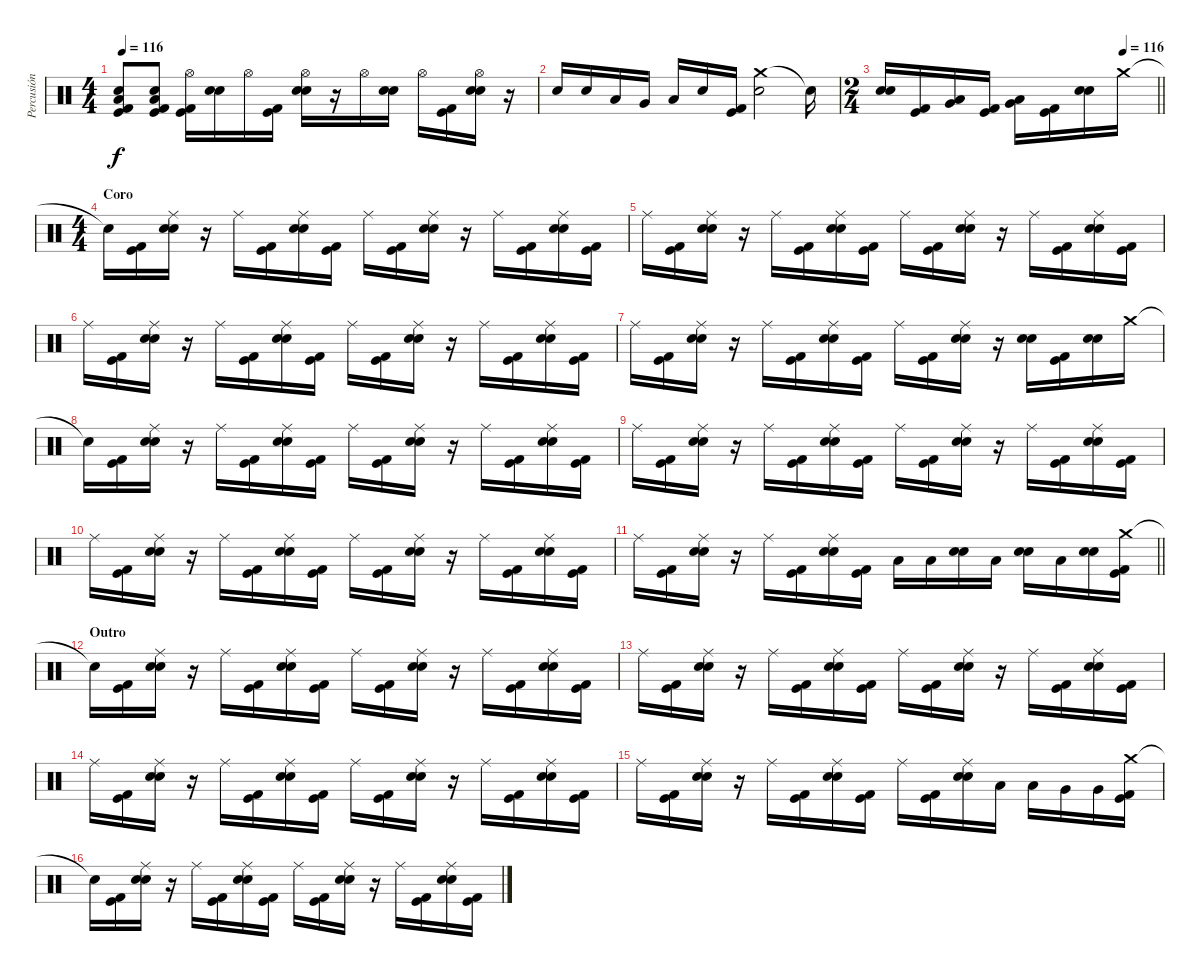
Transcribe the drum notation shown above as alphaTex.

\track ("Percusión" "Percusión") {instrument percussion}
\staff {score}
\articulation defaults
\ts (4 4)
\tempo 116
\clef neutral
\ks c
("Low Floor Tom (hit)" "Electric Snare (hit)" "Kick (hit)" "Kick (hit) 2").8{dy f} ("Low Floor Tom (hit)" "Electric Snare (hit)" "Kick (hit)" "Kick (hit) 2").8 ("Hi-Hat (open)" "Kick (hit)" "Kick (hit) 2").16 ("Electric Snare (hit)" "Snare (hit) 2").16 "Hi-Hat (open)".16 ("Kick (hit)" "Kick (hit) 2").16 ("Hi-Hat (open)" "Electric Snare (hit)" "Snare (hit) 2").16 r.16 "Hi-Hat (open)".16 ("Electric Snare (hit)" "Snare (hit) 2").16 "Hi-Hat (open)".16 ("Kick (hit)" "Kick (hit) 2").16 ("Hi-Hat (open)" "Electric Snare (hit)" "Snare (hit) 2").16 r.16 |
"Electric Snare (hit)".16 "Electric Snare (hit)".16 "Low Tom (hit)".16 "Very Low Tom (hit)".16 "Low Floor Tom (hit)".16 "Electric Snare (hit)".16 ("Kick (hit)" "Kick (hit) 2").16 ("Crash medium (hit)" "Electric Snare (hit)").2 "Snare (hit)"{t}.16 |
\ts (2 4)
\tempo (116 0.875)
\barLineRight lightlight
("Electric Snare (hit)" "Snare (hit) 2").16 ("Kick (hit)" "Kick (hit) 2").16 ("Low Tom (hit)" "Very Low Tom (hit)").16 ("Kick (hit)" "Kick (hit) 2").16 ("Low Tom (hit)" "Very Low Tom (hit)").16 ("Kick (hit)" "Kick (hit) 2").16 ("Electric Snare (hit)" "Snare (hit) 2").16 "Crash medium (hit)".16 |
\ts (4 4)
\section ("" "Coro")
"Snare (hit)"{t}.16 ("Kick (hit)" "Kick (hit) 2").16 ("Ride (middle)" "Electric Snare (hit)" "Snare (hit) 2").16 r.16 "Ride (middle)".16 ("Kick (hit)" "Kick (hit) 2").16 ("Ride (middle)" "Electric Snare (hit)" "Snare (hit) 2").16 ("Kick (hit)" "Kick (hit) 2").16 "Ride (middle)".16 ("Kick (hit)" "Kick (hit) 2").16 ("Ride (middle)" "Electric Snare (hit)" "Snare (hit) 2").16 r.16 "Ride (middle)".16 ("Kick (hit)" "Kick (hit) 2").16 ("Ride (middle)" "Electric Snare (hit)" "Snare (hit) 2").16 ("Kick (hit)" "Kick (hit) 2").16 |
"Ride (middle)".16 ("Kick (hit)" "Kick (hit) 2").16 ("Ride (middle)" "Electric Snare (hit)" "Snare (hit) 2").16 r.16 "Ride (middle)".16 ("Kick (hit)" "Kick (hit) 2").16 ("Ride (middle)" "Electric Snare (hit)" "Snare (hit) 2").16 ("Kick (hit)" "Kick (hit) 2").16 "Ride (middle)".16 ("Kick (hit)" "Kick (hit) 2").16 ("Ride (middle)" "Electric Snare (hit)" "Snare (hit) 2").16 r.16 "Ride (middle)".16 ("Kick (hit)" "Kick (hit) 2").16 ("Ride (middle)" "Electric Snare (hit)" "Snare (hit) 2").16 ("Kick (hit)" "Kick (hit) 2").16 |
"Ride (middle)".16 ("Kick (hit)" "Kick (hit) 2").16 ("Ride (middle)" "Electric Snare (hit)" "Snare (hit) 2").16 r.16 "Ride (middle)".16 ("Kick (hit)" "Kick (hit) 2").16 ("Ride (middle)" "Electric Snare (hit)" "Snare (hit) 2").16 ("Kick (hit)" "Kick (hit) 2").16 "Ride (middle)".16 ("Kick (hit)" "Kick (hit) 2").16 ("Ride (middle)" "Electric Snare (hit)" "Snare (hit) 2").16 r.16 "Ride (middle)".16 ("Kick (hit)" "Kick (hit) 2").16 ("Ride (middle)" "Electric Snare (hit)" "Snare (hit) 2").16 ("Kick (hit)" "Kick (hit) 2").16 |
"Ride (middle)".16 ("Kick (hit)" "Kick (hit) 2").16 ("Ride (middle)" "Electric Snare (hit)" "Snare (hit) 2").16 r.16 "Ride (middle)".16 ("Kick (hit)" "Kick (hit) 2").16 ("Ride (middle)" "Electric Snare (hit)" "Snare (hit) 2").16 ("Kick (hit)" "Kick (hit) 2").16 "Ride (middle)".16 ("Kick (hit)" "Kick (hit) 2").16 ("Ride (middle)" "Electric Snare (hit)" "Snare (hit) 2").16 r.16 ("Electric Snare (hit)" "Snare (hit) 2").16 ("Kick (hit)" "Kick (hit) 2").16 ("Electric Snare (hit)" "Snare (hit) 2").16 "Crash medium (hit)".16 |
"Snare (hit)"{t}.16 ("Kick (hit)" "Kick (hit) 2").16 ("Ride (middle)" "Electric Snare (hit)" "Snare (hit) 2").16 r.16 "Ride (middle)".16 ("Kick (hit)" "Kick (hit) 2").16 ("Ride (middle)" "Electric Snare (hit)" "Snare (hit) 2").16 ("Kick (hit)" "Kick (hit) 2").16 "Ride (middle)".16 ("Kick (hit)" "Kick (hit) 2").16 ("Ride (middle)" "Electric Snare (hit)" "Snare (hit) 2").16 r.16 "Ride (middle)".16 ("Kick (hit)" "Kick (hit) 2").16 ("Ride (middle)" "Electric Snare (hit)" "Snare (hit) 2").16 ("Kick (hit)" "Kick (hit) 2").16 |
"Ride (middle)".16 ("Kick (hit)" "Kick (hit) 2").16 ("Ride (middle)" "Electric Snare (hit)" "Snare (hit) 2").16 r.16 "Ride (middle)".16 ("Kick (hit)" "Kick (hit) 2").16 ("Ride (middle)" "Electric Snare (hit)" "Snare (hit) 2").16 ("Kick (hit)" "Kick (hit) 2").16 "Ride (middle)".16 ("Kick (hit)" "Kick (hit) 2").16 ("Ride (middle)" "Electric Snare (hit)" "Snare (hit) 2").16 r.16 "Ride (middle)".16 ("Kick (hit)" "Kick (hit) 2").16 ("Ride (middle)" "Electric Snare (hit)" "Snare (hit) 2").16 ("Kick (hit)" "Kick (hit) 2").16 |
"Ride (middle)".16 ("Kick (hit)" "Kick (hit) 2").16 ("Ride (middle)" "Electric Snare (hit)" "Snare (hit) 2").16 r.16 "Ride (middle)".16 ("Kick (hit)" "Kick (hit) 2").16 ("Ride (middle)" "Electric Snare (hit)" "Snare (hit) 2").16 ("Kick (hit)" "Kick (hit) 2").16 "Ride (middle)".16 ("Kick (hit)" "Kick (hit) 2").16 ("Ride (middle)" "Electric Snare (hit)" "Snare (hit) 2").16 r.16 "Ride (middle)".16 ("Kick (hit)" "Kick (hit) 2").16 ("Ride (middle)" "Electric Snare (hit)" "Snare (hit) 2").16 ("Kick (hit)" "Kick (hit) 2").16 |
\barLineRight lightlight "Ride (middle)".16
("Kick (hit)" "Kick (hit) 2").16 ("Ride (middle)" "Electric Snare (hit)" "Snare (hit) 2").16 r.16 "Ride (middle)".16 ("Kick (hit)" "Kick (hit) 2").16 ("Ride (middle)" "Electric Snare (hit)" "Snare (hit) 2").16 ("Kick (hit)" "Kick (hit) 2").16 "Low Floor Tom (hit)".16 "Low Floor Tom (hit)".16 ("Electric Snare (hit)" "Snare (hit) 2").16 "Low Floor Tom (hit)".16 ("Electric Snare (hit)" "Snare (hit) 2").16 "Low Floor Tom (hit)".16 ("Electric Snare (hit)" "Snare (hit) 2").16 ("Crash medium (hit)" "Kick (hit)" "Kick (hit) 2").16 |
\section ("" "Outro")
"Snare (hit)"{t}.16 ("Kick (hit)" "Kick (hit) 2").16 ("Ride (middle)" "Electric Snare (hit)" "Snare (hit) 2").16 r.16 "Ride (middle)".16 ("Kick (hit)" "Kick (hit) 2").16 ("Ride (middle)" "Electric Snare (hit)" "Snare (hit) 2").16 ("Kick (hit)" "Kick (hit) 2").16 "Ride (middle)".16 ("Kick (hit)" "Kick (hit) 2").16 ("Ride (middle)" "Electric Snare (hit)" "Snare (hit) 2").16 r.16 "Ride (middle)".16 ("Kick (hit)" "Kick (hit) 2").16 ("Ride (middle)" "Electric Snare (hit)" "Snare (hit) 2").16 ("Kick (hit)" "Kick (hit) 2").16 |
"Ride (middle)".16 ("Kick (hit)" "Kick (hit) 2").16 ("Ride (middle)" "Electric Snare (hit)" "Snare (hit) 2").16 r.16 "Ride (middle)".16 ("Kick (hit)" "Kick (hit) 2").16 ("Ride (middle)" "Electric Snare (hit)" "Snare (hit) 2").16 ("Kick (hit)" "Kick (hit) 2").16 "Ride (middle)".16 ("Kick (hit)" "Kick (hit) 2").16 ("Ride (middle)" "Electric Snare (hit)" "Snare (hit) 2").16 r.16 "Ride (middle)".16 ("Kick (hit)" "Kick (hit) 2").16 ("Ride (middle)" "Electric Snare (hit)" "Snare (hit) 2").16 ("Kick (hit)" "Kick (hit) 2").16 |
"Ride (middle)".16 ("Kick (hit)" "Kick (hit) 2").16 ("Ride (middle)" "Electric Snare (hit)" "Snare (hit) 2").16 r.16 "Ride (middle)".16 ("Kick (hit)" "Kick (hit) 2").16 ("Ride (middle)" "Electric Snare (hit)" "Snare (hit) 2").16 ("Kick (hit)" "Kick (hit) 2").16 "Ride (middle)".16 ("Kick (hit)" "Kick (hit) 2").16 ("Ride (middle)" "Electric Snare (hit)" "Snare (hit) 2").16 r.16 "Ride (middle)".16 ("Kick (hit)" "Kick (hit) 2").16 ("Ride (middle)" "Electric Snare (hit)" "Snare (hit) 2").16 ("Kick (hit)" "Kick (hit) 2").16 |
"Ride (middle)".16 ("Kick (hit)" "Kick (hit) 2").16 ("Ride (middle)" "Electric Snare (hit)" "Snare (hit) 2").16 r.16 "Ride (middle)".16 ("Kick (hit)" "Kick (hit) 2").16 ("Ride (middle)" "Electric Snare (hit)" "Snare (hit) 2").16 ("Kick (hit)" "Kick (hit) 2").16 "Ride (middle)".16 ("Kick (hit)" "Kick (hit) 2").16 ("Ride (middle)" "Electric Snare (hit)" "Snare (hit) 2").16 "Low Tom (hit)".16 "Low Tom (hit)".16 "Very Low Tom (hit)".16 "Very Low Tom (hit)".16 ("Crash medium (hit)" "Kick (hit)" "Kick (hit) 2").16 |
"Snare (hit)"{t}.16 ("Kick (hit)" "Kick (hit) 2").16 ("Ride (middle)" "Electric Snare (hit)" "Snare (hit) 2").16 r.16 "Ride (middle)".16 ("Kick (hit)" "Kick (hit) 2").16 ("Ride (middle)" "Electric Snare (hit)" "Snare (hit) 2").16 ("Kick (hit)" "Kick (hit) 2").16 "Ride (middle)".16 ("Kick (hit)" "Kick (hit) 2").16 ("Ride (middle)" "Electric Snare (hit)" "Snare (hit) 2").16 r.16 "Ride (middle)".16 ("Kick (hit)" "Kick (hit) 2").16 ("Ride (middle)" "Electric Snare (hit)" "Snare (hit) 2").16 ("Kick (hit)" "Kick (hit) 2").16
